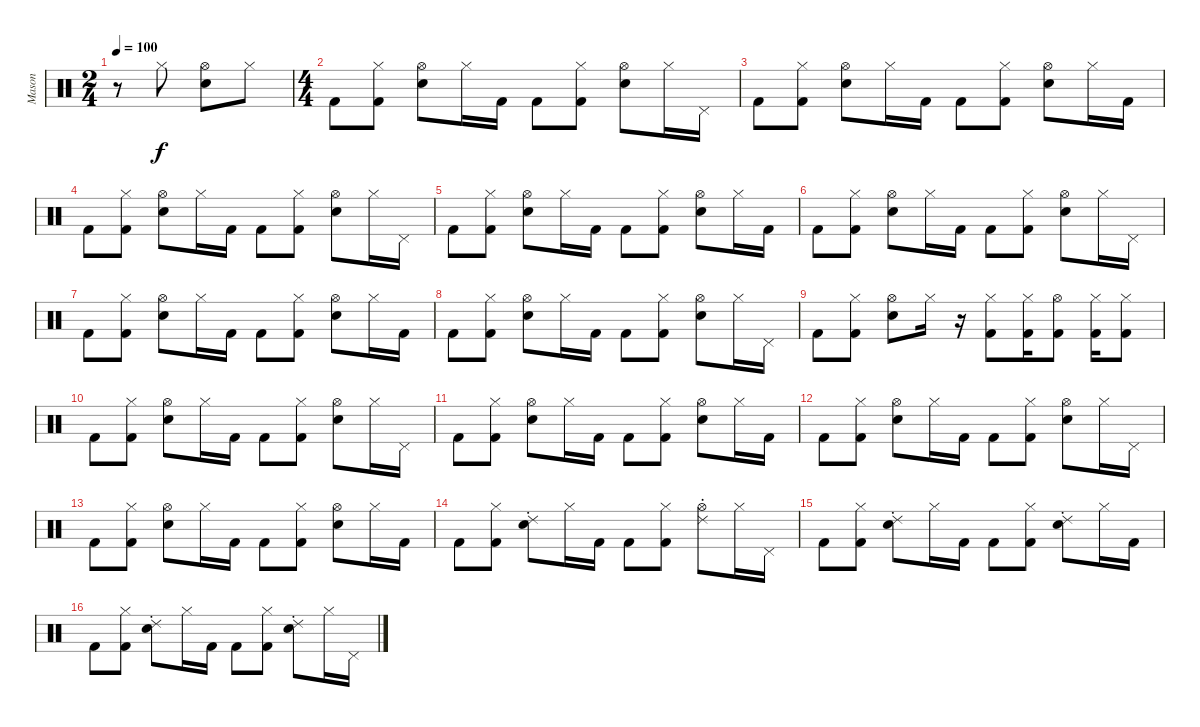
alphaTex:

\track ("Mason" "Mason") {instrument percussion}
\staff {score}
\articulation defaults
\ts (2 4)
\tempo 100
\clef neutral
\ks c
r.8{dy f} "Hi-Hat (closed)".8 ("Hand Clap (hit)" "Hi-Hat (open)").8 "Hi-Hat (closed)".8 |
\ts (4 4)
"Kick (hit) 2".8 ("Hi-Hat (closed)" "Kick (hit) 2").8 ("Hand Clap (hit)" "Hi-Hat (open)").8 "Hi-Hat (closed)".16 "Kick (hit) 2".16 "Kick (hit) 2".8 ("Hi-Hat (closed)" "Kick (hit) 2").8 ("Hand Clap (hit)" "Hi-Hat (open)").8 "Hi-Hat (closed)".16 "Pedal Hi-Hat (hit)".16 |
"Kick (hit) 2".8 ("Hi-Hat (closed)" "Kick (hit) 2").8 ("Hand Clap (hit)" "Hi-Hat (open)").8 "Hi-Hat (closed)".16 "Kick (hit) 2".16 "Kick (hit) 2".8 ("Hi-Hat (closed)" "Kick (hit) 2").8 ("Hand Clap (hit)" "Hi-Hat (open)").8 "Hi-Hat (closed)".16 "Kick (hit) 2".16 |
"Kick (hit) 2".8 ("Hi-Hat (closed)" "Kick (hit) 2").8 ("Hand Clap (hit)" "Hi-Hat (open)").8 "Hi-Hat (closed)".16 "Kick (hit) 2".16 "Kick (hit) 2".8 ("Hi-Hat (closed)" "Kick (hit) 2").8 ("Hand Clap (hit)" "Hi-Hat (open)").8 "Hi-Hat (closed)".16 "Pedal Hi-Hat (hit)".16 |
"Kick (hit) 2".8 ("Hi-Hat (closed)" "Kick (hit) 2").8 ("Hand Clap (hit)" "Hi-Hat (open)").8 "Hi-Hat (closed)".16 "Kick (hit) 2".16 "Kick (hit) 2".8 ("Hi-Hat (closed)" "Kick (hit) 2").8 ("Hand Clap (hit)" "Hi-Hat (open)").8 "Hi-Hat (closed)".16 "Kick (hit) 2".16 |
"Kick (hit) 2".8 ("Hi-Hat (closed)" "Kick (hit) 2").8 ("Hand Clap (hit)" "Hi-Hat (open)").8 "Hi-Hat (closed)".16 "Kick (hit) 2".16 "Kick (hit) 2".8 ("Hi-Hat (closed)" "Kick (hit) 2").8 ("Hand Clap (hit)" "Hi-Hat (open)").8 "Hi-Hat (closed)".16 "Pedal Hi-Hat (hit)".16 |
"Kick (hit) 2".8 ("Hi-Hat (closed)" "Kick (hit) 2").8 ("Hand Clap (hit)" "Hi-Hat (open)").8 "Hi-Hat (closed)".16 "Kick (hit) 2".16 "Kick (hit) 2".8 ("Hi-Hat (closed)" "Kick (hit) 2").8 ("Hand Clap (hit)" "Hi-Hat (open)").8 "Hi-Hat (closed)".16 "Kick (hit) 2".16 |
"Kick (hit) 2".8 ("Hi-Hat (closed)" "Kick (hit) 2").8 ("Hand Clap (hit)" "Hi-Hat (open)").8 "Hi-Hat (closed)".16 "Kick (hit) 2".16 "Kick (hit) 2".8 ("Hi-Hat (closed)" "Kick (hit) 2").8 ("Hand Clap (hit)" "Hi-Hat (open)").8 "Hi-Hat (closed)".16 "Pedal Hi-Hat (hit)".16 |
"Kick (hit) 2".8 ("Hi-Hat (closed)" "Kick (hit) 2").8 ("Hand Clap (hit)" "Hi-Hat (open)").8 "Hi-Hat (closed)".16 r.16 ("Hi-Hat (closed)" "Kick (hit) 2").8 ("Hi-Hat (closed)" "Kick (hit) 2").16 ("Hi-Hat (open)" "Kick (hit) 2").8 ("Hi-Hat (closed)" "Kick (hit) 2").16 ("Hi-Hat (closed)" "Kick (hit) 2").8 |
"Kick (hit) 2".8 ("Hi-Hat (closed)" "Kick (hit) 2").8 ("Hand Clap (hit)" "Hi-Hat (open)").8 "Hi-Hat (closed)".16 "Kick (hit) 2".16 "Kick (hit) 2".8 ("Hi-Hat (closed)" "Kick (hit) 2").8 ("Hand Clap (hit)" "Hi-Hat (open)").8 "Hi-Hat (closed)".16 "Pedal Hi-Hat (hit)".16 |
"Kick (hit) 2".8 ("Hi-Hat (closed)" "Kick (hit) 2").8 ("Hand Clap (hit)" "Hi-Hat (open)").8 "Hi-Hat (closed)".16 "Kick (hit) 2".16 "Kick (hit) 2".8 ("Hi-Hat (closed)" "Kick (hit) 2").8 ("Hand Clap (hit)" "Hi-Hat (open)").8 "Hi-Hat (closed)".16 "Kick (hit) 2".16 |
"Kick (hit) 2".8 ("Hi-Hat (closed)" "Kick (hit) 2").8 ("Hand Clap (hit)" "Hi-Hat (open)").8 "Hi-Hat (closed)".16 "Kick (hit) 2".16 "Kick (hit) 2".8 ("Hi-Hat (closed)" "Kick (hit) 2").8 ("Hand Clap (hit)" "Hi-Hat (open)").8 "Hi-Hat (closed)".16 "Pedal Hi-Hat (hit)".16 |
"Kick (hit) 2".8 ("Hi-Hat (closed)" "Kick (hit) 2").8 ("Hand Clap (hit)" "Hi-Hat (open)").8 "Hi-Hat (closed)".16 "Kick (hit) 2".16 "Kick (hit) 2".8 ("Hi-Hat (closed)" "Kick (hit) 2").8 ("Hand Clap (hit)" "Hi-Hat (open)").8 "Hi-Hat (closed)".16 "Kick (hit) 2".16 |
"Kick (hit) 2".8 ("Hi-Hat (closed)" "Kick (hit) 2").8 ("Ride (choke) 2" "Hand Clap (hit)").8 "Hi-Hat (closed)".16 "Kick (hit) 2".16 "Kick (hit) 2".8 ("Hi-Hat (closed)" "Kick (hit) 2").8 ("Ride (choke) 2" "Hi-Hat (open)").8 "Hi-Hat (closed)".16 "Pedal Hi-Hat (hit)".16 |
"Kick (hit) 2".8 ("Hi-Hat (closed)" "Kick (hit) 2").8 ("Ride (choke) 2" "Hand Clap (hit)").8 "Hi-Hat (closed)".16 "Kick (hit) 2".16 "Kick (hit) 2".8 ("Hi-Hat (closed)" "Kick (hit) 2").8 ("Ride (choke) 2" "Hand Clap (hit)").8 "Hi-Hat (closed)".16 "Kick (hit) 2".16 |
"Kick (hit) 2".8 ("Hi-Hat (closed)" "Kick (hit) 2").8 ("Hand Clap (hit)" "Ride (choke) 2").8 "Hi-Hat (closed)".16 "Kick (hit) 2".16 "Kick (hit) 2".8 ("Hi-Hat (closed)" "Kick (hit) 2").8 ("Hand Clap (hit)" "Ride (choke) 2").8 "Hi-Hat (closed)".16 "Pedal Hi-Hat (hit)".16
